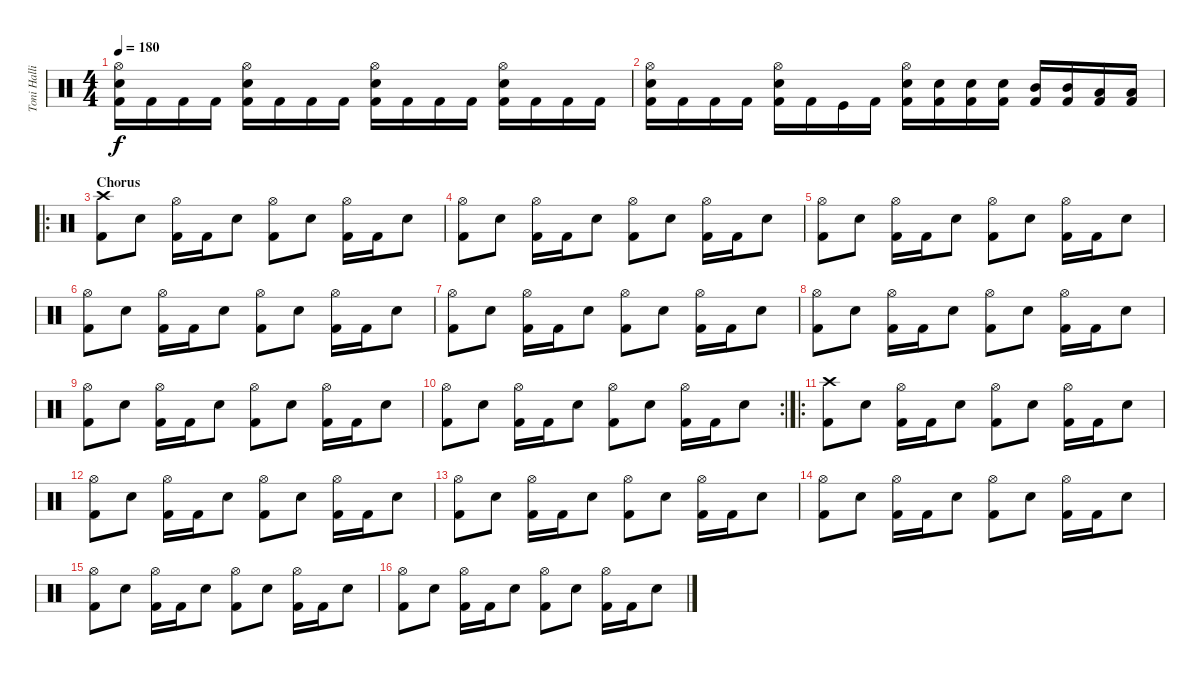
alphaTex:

\track ("Toni Hallio" "Toni Halli") {instrument percussion}
\staff {score}
\articulation defaults
\ts (4 4)
\tempo 180
\clef neutral
\ks c
("Hi-Hat (open)" "Electric Snare (hit)" "Kick (hit) 2").16{dy f} "Kick (hit) 2".16 "Kick (hit) 2".16 "Kick (hit) 2".16 ("Hi-Hat (open)" "Electric Snare (hit)" "Kick (hit) 2").16 "Kick (hit) 2".16 "Kick (hit) 2".16 "Kick (hit) 2".16 ("Hi-Hat (open)" "Electric Snare (hit)" "Kick (hit) 2").16 "Kick (hit) 2".16 "Kick (hit) 2".16 "Kick (hit) 2".16 ("Hi-Hat (open)" "Electric Snare (hit)" "Kick (hit) 2").16 "Kick (hit) 2".16 "Kick (hit) 2".16 "Kick (hit) 2".16 |
("Hi-Hat (open)" "Electric Snare (hit)" "Kick (hit) 2").16 "Kick (hit) 2".16 "Kick (hit) 2".16 "Kick (hit) 2".16 ("Hi-Hat (open)" "Electric Snare (hit)" "Kick (hit) 2").16 "Kick (hit) 2".16 "Kick (hit)".16 "Kick (hit) 2".16 ("Hi-Hat (open)" "Electric Snare (hit)" "Kick (hit) 2").16 ("Electric Snare (hit)" "Kick (hit) 2").16 ("Electric Snare (hit)" "Kick (hit) 2").16 ("Electric Snare (hit)" "Kick (hit) 2").16 ("Mid Tom (hit)" "Kick (hit) 2").16 ("Mid Tom (hit)" "Kick (hit) 2").16 ("Low Tom (hit)" "Kick (hit) 2").16 ("Low Tom (hit)" "Kick (hit) 2").16 |
\ro
\section ("" "Chorus")
("Crash high (hit)" "Kick (hit) 2").8 "Electric Snare (hit)".8 ("Hi-Hat (open)" "Kick (hit) 2").16 "Kick (hit) 2".16 "Electric Snare (hit)".8 ("Hi-Hat (open)" "Kick (hit) 2").8 "Electric Snare (hit)".8 ("Hi-Hat (open)" "Kick (hit) 2").16 "Kick (hit) 2".16 "Electric Snare (hit)".8 |
("Hi-Hat (open)" "Kick (hit) 2").8 "Electric Snare (hit)".8 ("Hi-Hat (open)" "Kick (hit) 2").16 "Kick (hit) 2".16 "Electric Snare (hit)".8 ("Hi-Hat (open)" "Kick (hit) 2").8 "Electric Snare (hit)".8 ("Hi-Hat (open)" "Kick (hit) 2").16 "Kick (hit) 2".16 "Electric Snare (hit)".8 |
("Hi-Hat (open)" "Kick (hit) 2").8 "Electric Snare (hit)".8 ("Hi-Hat (open)" "Kick (hit) 2").16 "Kick (hit) 2".16 "Electric Snare (hit)".8 ("Hi-Hat (open)" "Kick (hit) 2").8 "Electric Snare (hit)".8 ("Hi-Hat (open)" "Kick (hit) 2").16 "Kick (hit) 2".16 "Electric Snare (hit)".8 |
("Hi-Hat (open)" "Kick (hit) 2").8 "Electric Snare (hit)".8 ("Hi-Hat (open)" "Kick (hit) 2").16 "Kick (hit) 2".16 "Electric Snare (hit)".8 ("Hi-Hat (open)" "Kick (hit) 2").8 "Electric Snare (hit)".8 ("Hi-Hat (open)" "Kick (hit) 2").16 "Kick (hit) 2".16 "Electric Snare (hit)".8 |
("Hi-Hat (open)" "Kick (hit) 2").8 "Electric Snare (hit)".8 ("Hi-Hat (open)" "Kick (hit) 2").16 "Kick (hit) 2".16 "Electric Snare (hit)".8 ("Hi-Hat (open)" "Kick (hit) 2").8 "Electric Snare (hit)".8 ("Hi-Hat (open)" "Kick (hit) 2").16 "Kick (hit) 2".16 "Electric Snare (hit)".8 |
("Hi-Hat (open)" "Kick (hit) 2").8 "Electric Snare (hit)".8 ("Hi-Hat (open)" "Kick (hit) 2").16 "Kick (hit) 2".16 "Electric Snare (hit)".8 ("Hi-Hat (open)" "Kick (hit) 2").8 "Electric Snare (hit)".8 ("Hi-Hat (open)" "Kick (hit) 2").16 "Kick (hit) 2".16 "Electric Snare (hit)".8 |
("Hi-Hat (open)" "Kick (hit) 2").8 "Electric Snare (hit)".8 ("Hi-Hat (open)" "Kick (hit) 2").16 "Kick (hit) 2".16 "Electric Snare (hit)".8 ("Hi-Hat (open)" "Kick (hit) 2").8 "Electric Snare (hit)".8 ("Hi-Hat (open)" "Kick (hit) 2").16 "Kick (hit) 2".16 "Electric Snare (hit)".8 |
\rc 2
("Hi-Hat (open)" "Kick (hit) 2").8 "Electric Snare (hit)".8 ("Hi-Hat (open)" "Kick (hit) 2").16 "Kick (hit) 2".16 "Electric Snare (hit)".8 ("Hi-Hat (open)" "Kick (hit) 2").8 "Electric Snare (hit)".8 ("Hi-Hat (open)" "Kick (hit) 2").16 "Kick (hit) 2".16 "Electric Snare (hit)".8 |
\ro
("Crash high (hit)" "Kick (hit) 2").8 "Electric Snare (hit)".8 ("Hi-Hat (open)" "Kick (hit) 2").16 "Kick (hit) 2".16 "Electric Snare (hit)".8 ("Hi-Hat (open)" "Kick (hit) 2").8 "Electric Snare (hit)".8 ("Hi-Hat (open)" "Kick (hit) 2").16 "Kick (hit) 2".16 "Electric Snare (hit)".8 |
("Hi-Hat (open)" "Kick (hit) 2").8 "Electric Snare (hit)".8 ("Hi-Hat (open)" "Kick (hit) 2").16 "Kick (hit) 2".16 "Electric Snare (hit)".8 ("Hi-Hat (open)" "Kick (hit) 2").8 "Electric Snare (hit)".8 ("Hi-Hat (open)" "Kick (hit) 2").16 "Kick (hit) 2".16 "Electric Snare (hit)".8 |
("Hi-Hat (open)" "Kick (hit) 2").8 "Electric Snare (hit)".8 ("Hi-Hat (open)" "Kick (hit) 2").16 "Kick (hit) 2".16 "Electric Snare (hit)".8 ("Hi-Hat (open)" "Kick (hit) 2").8 "Electric Snare (hit)".8 ("Hi-Hat (open)" "Kick (hit) 2").16 "Kick (hit) 2".16 "Electric Snare (hit)".8 |
("Hi-Hat (open)" "Kick (hit) 2").8 "Electric Snare (hit)".8 ("Hi-Hat (open)" "Kick (hit) 2").16 "Kick (hit) 2".16 "Electric Snare (hit)".8 ("Hi-Hat (open)" "Kick (hit) 2").8 "Electric Snare (hit)".8 ("Hi-Hat (open)" "Kick (hit) 2").16 "Kick (hit) 2".16 "Electric Snare (hit)".8 |
("Hi-Hat (open)" "Kick (hit) 2").8 "Electric Snare (hit)".8 ("Hi-Hat (open)" "Kick (hit) 2").16 "Kick (hit) 2".16 "Electric Snare (hit)".8 ("Hi-Hat (open)" "Kick (hit) 2").8 "Electric Snare (hit)".8 ("Hi-Hat (open)" "Kick (hit) 2").16 "Kick (hit) 2".16 "Electric Snare (hit)".8 |
("Hi-Hat (open)" "Kick (hit) 2").8 "Electric Snare (hit)".8 ("Hi-Hat (open)" "Kick (hit) 2").16 "Kick (hit) 2".16 "Electric Snare (hit)".8 ("Hi-Hat (open)" "Kick (hit) 2").8 "Electric Snare (hit)".8 ("Hi-Hat (open)" "Kick (hit) 2").16 "Kick (hit) 2".16 "Electric Snare (hit)".8
